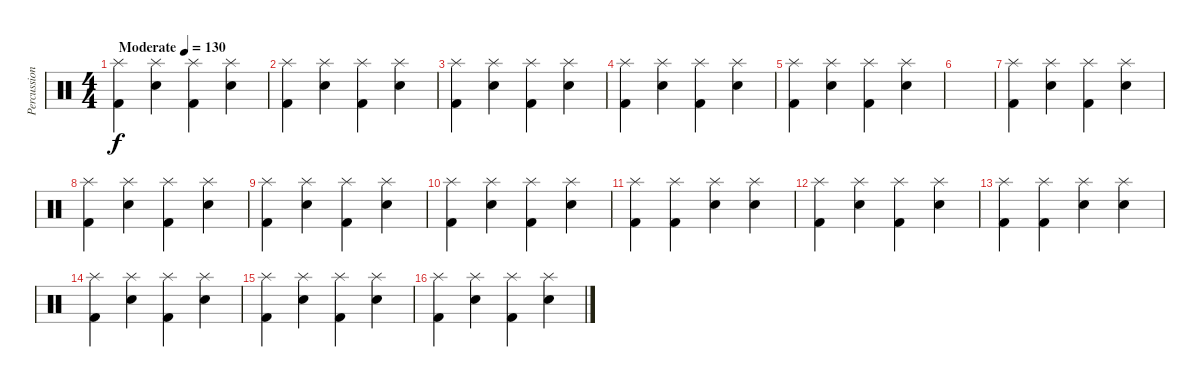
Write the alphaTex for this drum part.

\track ("Percussion" "Percussion") {instrument percussion}
\staff {score}
\articulation defaults
\ts (4 4)
\tempo (130 "Moderate")
\clef neutral
\ks c
("Kick (hit) 2" "Splash (hit)").4{dy f} ("Electric Snare (hit)" "Splash (hit)").4 ("Kick (hit) 2" "Splash (hit)").4 ("Electric Snare (hit)" "Splash (hit)").4 |
("Kick (hit) 2" "Splash (hit)").4 ("Electric Snare (hit)" "Splash (hit)").4 ("Kick (hit) 2" "Splash (hit)").4 ("Electric Snare (hit)" "Splash (hit)").4 |
("Kick (hit) 2" "Splash (hit)").4 ("Electric Snare (hit)" "Splash (hit)").4 ("Kick (hit) 2" "Splash (hit)").4 ("Electric Snare (hit)" "Splash (hit)").4 |
("Kick (hit) 2" "Splash (hit)").4 ("Electric Snare (hit)" "Splash (hit)").4 ("Kick (hit) 2" "Splash (hit)").4 ("Electric Snare (hit)" "Splash (hit)").4 |
("Kick (hit) 2" "Splash (hit)").4 ("Electric Snare (hit)" "Splash (hit)").4 ("Kick (hit) 2" "Splash (hit)").4 ("Electric Snare (hit)" "Splash (hit)").4 |
|
("Kick (hit) 2" "Splash (hit)").4 ("Electric Snare (hit)" "Splash (hit)").4 ("Kick (hit) 2" "Splash (hit)").4 ("Electric Snare (hit)" "Splash (hit)").4 |
("Kick (hit) 2" "Splash (hit)").4 ("Electric Snare (hit)" "Splash (hit)").4 ("Kick (hit) 2" "Splash (hit)").4 ("Electric Snare (hit)" "Splash (hit)").4 |
("Kick (hit) 2" "Splash (hit)").4 ("Electric Snare (hit)" "Splash (hit)").4 ("Kick (hit) 2" "Splash (hit)").4 ("Electric Snare (hit)" "Splash (hit)").4 |
("Kick (hit) 2" "Splash (hit)").4 ("Electric Snare (hit)" "Splash (hit)").4 ("Kick (hit) 2" "Splash (hit)").4 ("Electric Snare (hit)" "Splash (hit)").4 |
("Kick (hit) 2" "Splash (hit)").4 ("Kick (hit) 2" "Splash (hit)").4 ("Electric Snare (hit)" "Splash (hit)").4 ("Electric Snare (hit)" "Splash (hit)").4 |
("Kick (hit) 2" "Splash (hit)").4 ("Electric Snare (hit)" "Splash (hit)").4 ("Kick (hit) 2" "Splash (hit)").4 ("Electric Snare (hit)" "Splash (hit)").4 |
("Kick (hit) 2" "Splash (hit)").4 ("Kick (hit) 2" "Splash (hit)").4 ("Electric Snare (hit)" "Splash (hit)").4 ("Electric Snare (hit)" "Splash (hit)").4 |
("Kick (hit) 2" "Splash (hit)").4 ("Electric Snare (hit)" "Splash (hit)").4 ("Kick (hit) 2" "Splash (hit)").4 ("Electric Snare (hit)" "Splash (hit)").4 |
("Kick (hit) 2" "Splash (hit)").4 ("Electric Snare (hit)" "Splash (hit)").4 ("Kick (hit) 2" "Splash (hit)").4 ("Electric Snare (hit)" "Splash (hit)").4 |
("Kick (hit) 2" "Splash (hit)").4 ("Electric Snare (hit)" "Splash (hit)").4 ("Kick (hit) 2" "Splash (hit)").4 ("Electric Snare (hit)" "Splash (hit)").4
